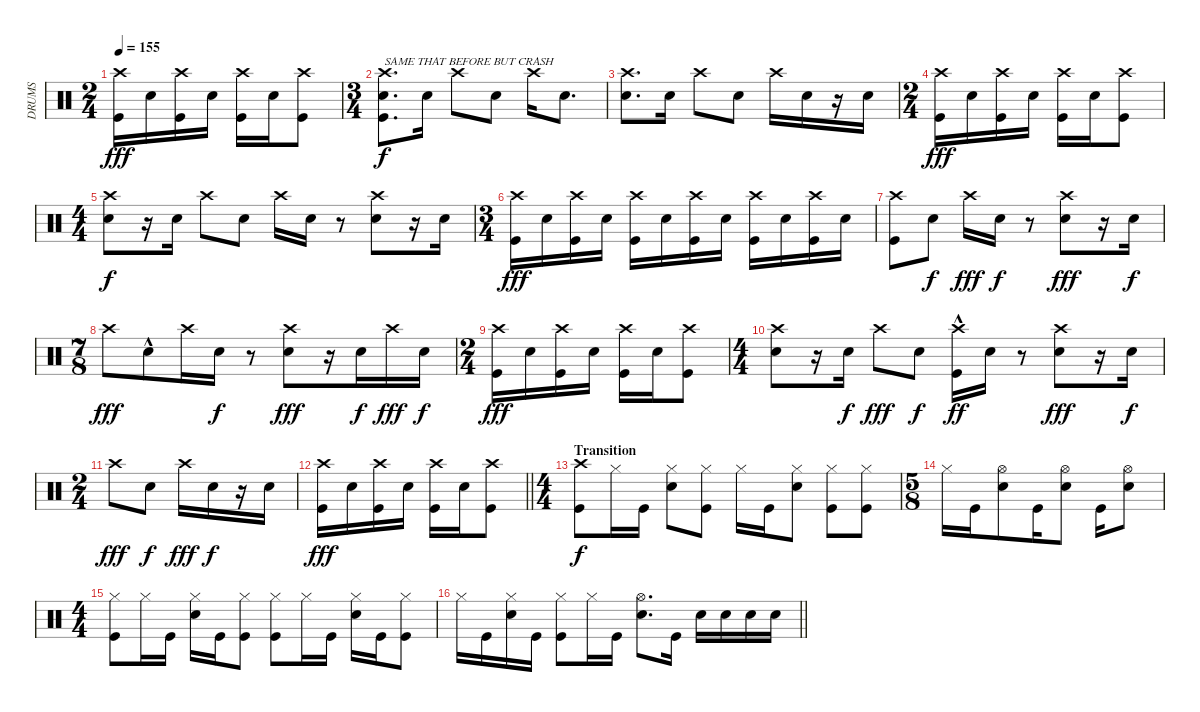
\track ("DRUMS" "DRUMS") {instrument percussion}
\staff {score}
\articulation defaults
\ts (2 4)
\tempo 155
\clef neutral
\ks c
("Crash high (hit)" "Kick (hit)").16{dy fff} "Snare (hit) 2".16 ("Kick (hit)" "Crash high (hit)").16 "Snare (hit) 2".16 ("Kick (hit)" "Crash high (hit)").16 "Snare (hit) 2".16 ("Crash high (hit)" "Kick (hit)").8 |
\ts (3 4)
("Crash high (hit)" "Kick (hit)" "Snare (hit) 2").8{d txt "SAME THAT BEFORE BUT CRASH" dy f} "Snare (hit) 2".16 "Crash high (hit)".8 "Snare (hit) 2".8 "Crash high (hit)".16 "Snare (hit) 2".8{d} |
("Crash high (hit)" "Snare (hit) 2").8{d} "Snare (hit) 2".16 "Crash high (hit)".8 "Snare (hit) 2".8 "Crash high (hit)".16 "Snare (hit) 2".16 r.16 "Snare (hit) 2".16 |
\ts (2 4)
("Crash high (hit)" "Kick (hit)").16{dy fff} "Snare (hit) 2".16 ("Kick (hit)" "Crash high (hit)").16 "Snare (hit) 2".16 ("Kick (hit)" "Crash high (hit)").16 "Snare (hit) 2".16 ("Crash high (hit)" "Kick (hit)").8 |
\ts (4 4)
("Crash high (hit)" "Snare (hit) 2").8{dy f} r.16 "Snare (hit) 2".16 "Crash high (hit)".8 "Snare (hit) 2".8 "Crash high (hit)".16 "Snare (hit) 2".16 r.8 ("Crash high (hit)" "Snare (hit) 2").8 r.16 "Snare (hit) 2".16 |
\ts (3 4)
("Crash high (hit)" "Kick (hit)").16{dy fff} "Snare (hit) 2".16 ("Kick (hit)" "Crash high (hit)").16 "Snare (hit) 2".16 ("Kick (hit)" "Crash high (hit)").16 "Snare (hit) 2".16 ("Kick (hit)" "Crash high (hit)").16 "Snare (hit) 2".16 ("Kick (hit)" "Crash high (hit)").16 "Snare (hit) 2".16 ("Kick (hit)" "Crash high (hit)").16 "Snare (hit) 2".16 |
("Crash high (hit)" "Kick (hit)").8 "Snare (hit) 2".8{dy f} "Crash high (hit)".16{dy fff} "Snare (hit) 2".16{dy f} r.8 ("Snare (hit) 2" "Crash high (hit)").8{dy fff} r.16 "Snare (hit) 2".16{dy f} |
\ts (7 8)
"Crash high (hit)".8{dy fff} "Snare (hit) 2"{hac}.8 "Crash high (hit)".16 "Snare (hit) 2".16{dy f} r.8 ("Snare (hit) 2" "Crash high (hit)").8{dy fff} r.16 "Snare (hit) 2".16{dy f} "Crash high (hit)".16{dy fff} "Snare (hit) 2".16{dy f} |
\ts (2 4)
("Crash high (hit)" "Kick (hit)").16{dy fff} "Snare (hit) 2".16 ("Kick (hit)" "Crash high (hit)").16 "Snare (hit) 2".16 ("Kick (hit)" "Crash high (hit)").16 "Snare (hit) 2".16 ("Crash high (hit)" "Kick (hit)").8 |
\ts (4 4)
("Crash high (hit)" "Snare (hit) 2").8 r.16 "Snare (hit) 2".16{dy f} "Crash high (hit)".8{dy fff} "Snare (hit) 2".8{dy f} ("Kick (hit)"{hac} "Crash high (hit)").16{dy ff} "Snare (hit) 2".16 r.8 ("Snare (hit) 2" "Crash high (hit)").8{dy fff} r.16 "Snare (hit) 2".16{dy f} |
\ts (2 4)
"Crash high (hit)".8{dy fff} "Snare (hit) 2".8{dy f} "Crash high (hit)".16{dy fff} "Snare (hit) 2".16{dy f} r.16 "Snare (hit) 2".16 |
\barLineRight lightlight
("Crash high (hit)" "Kick (hit)").16{dy fff} "Snare (hit) 2".16 ("Kick (hit)" "Crash high (hit)").16 "Snare (hit) 2".16 ("Kick (hit)" "Crash high (hit)").16 "Snare (hit) 2".16 ("Crash high (hit)" "Kick (hit)").8 |
\ts (4 4)
\section ("" "Transition")
("Kick (hit)" "Crash high (hit)").8{dy f} "Hi-Hat (closed)".16 "Kick (hit)".16 ("Snare (hit) 2" "Hi-Hat (closed)").8 ("Kick (hit)" "Hi-Hat (closed)").8 "Hi-Hat (closed)".16 "Kick (hit)".16 ("Snare (hit) 2" "Hi-Hat (closed)").8 ("Kick (hit)" "Hi-Hat (closed)").8 ("Kick (hit)" "Hi-Hat (closed)").8 |
\ts (5 8)
"Hi-Hat (closed)".16 "Kick (hit)".16 ("Snare (hit) 2" "Hi-Hat (open)").8 "Kick (hit)".16 ("Snare (hit) 2" "Hi-Hat (open)").8 "Kick (hit)".16 ("Snare (hit) 2" "Hi-Hat (open)").8 |
\ts (4 4)
("Kick (hit)" "Hi-Hat (closed)").8 "Hi-Hat (closed)".16 "Kick (hit)".16 ("Snare (hit) 2" "Hi-Hat (closed)").16 "Kick (hit)".16 ("Kick (hit)" "Hi-Hat (closed)").8 ("Kick (hit)" "Hi-Hat (closed)").8 "Hi-Hat (closed)".16 "Kick (hit)".16 ("Snare (hit) 2" "Hi-Hat (closed)").16 "Kick (hit)".16 ("Kick (hit)" "Hi-Hat (closed)").8 |
\barLineRight lightlight "Hi-Hat (closed)".16 "Kick (hit)".16
("Snare (hit) 2" "Hi-Hat (closed)").16 "Kick (hit)".16 ("Kick (hit)" "Hi-Hat (closed)").8 "Hi-Hat (closed)".16 "Kick (hit)".16 ("Snare (hit) 2" "Hi-Hat (open)").8{d} "Kick (hit)".16 "Snare (hit) 2".16 "Snare (hit) 2".16 "Snare (hit) 2".16 "Snare (hit) 2".16
